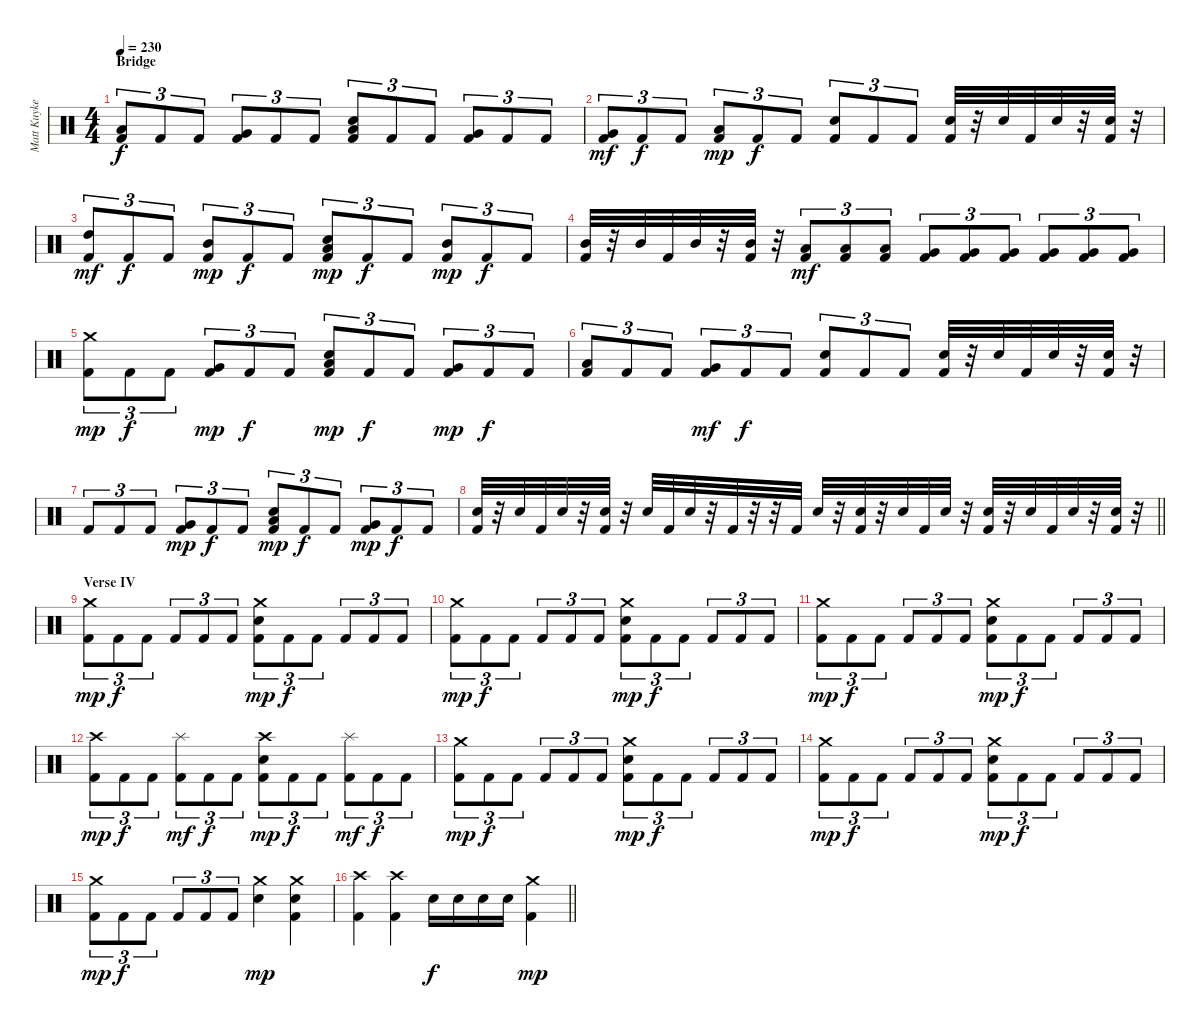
\track ("Matt Kuykendall" "Matt Kuyke") {instrument percussion}
\staff {score}
\articulation defaults
\ts (4 4)
\section ("" "Bridge")
\tempo 230
\clef neutral
\ks c
("Low Tom (hit)" "Kick (hit) 2").8{tu (3 2) dy f} "Kick (hit) 2".8{tu (3 2)} "Kick (hit) 2".8{tu (3 2)} ("Very Low Tom (hit)" "Kick (hit) 2").8{tu (3 2)} "Kick (hit) 2".8{tu (3 2)} "Kick (hit) 2".8{tu (3 2)} ("Electric Snare (hit)" "Low Tom (hit)" "Kick (hit) 2").8{tu (3 2)} "Kick (hit) 2".8{tu (3 2)} "Kick (hit) 2".8{tu (3 2)} ("Very Low Tom (hit)" "Kick (hit) 2").8{tu (3 2)} "Kick (hit) 2".8{tu (3 2)} "Kick (hit) 2".8{tu (3 2)} |
("Very Low Tom (hit)" "Kick (hit) 2").8{tu (3 2) dy mf} "Kick (hit) 2".8{tu (3 2) dy f} "Kick (hit) 2".8{tu (3 2)} ("Low Floor Tom (hit)" "Kick (hit) 2").8{tu (3 2) dy mp} "Kick (hit) 2".8{tu (3 2) dy f} "Kick (hit) 2".8{tu (3 2)} ("Electric Snare (hit)" "Kick (hit) 2").8{tu (3 2)} "Kick (hit) 2".8{tu (3 2)} "Kick (hit) 2".8{tu (3 2)} ("Electric Snare (hit)" "Kick (hit) 2").32 r.32 "Electric Snare (hit)".32 "Kick (hit) 2".32 "Electric Snare (hit)".32 r.32 ("Electric Snare (hit)" "Kick (hit) 2").32 r.32 |
("High Tom (hit)" "Kick (hit) 2").8{tu (3 2) dy mf} "Kick (hit) 2".8{tu (3 2) dy f} "Kick (hit) 2".8{tu (3 2)} ("Mid Tom (hit)" "Kick (hit) 2").8{tu (3 2) dy mp} "Kick (hit) 2".8{tu (3 2) dy f} "Kick (hit) 2".8{tu (3 2)} ("Electric Snare (hit)" "Low Tom (hit)" "Kick (hit) 2").8{tu (3 2) dy mp} "Kick (hit) 2".8{tu (3 2) dy f} "Kick (hit) 2".8{tu (3 2)} ("Mid Tom (hit)" "Kick (hit) 2").8{tu (3 2) dy mp} "Kick (hit) 2".8{tu (3 2) dy f} "Kick (hit) 2".8{tu (3 2)} |
("Mid Tom (hit)" "Kick (hit) 2").32 r.32 "Mid Tom (hit)".32 "Kick (hit) 2".32 "Mid Tom (hit)".32 r.32 ("Mid Tom (hit)" "Kick (hit) 2").32 r.32 ("Low Tom (hit)" "Kick (hit) 2").8{tu (3 2) dy mf} ("Low Tom (hit)" "Kick (hit) 2").8{tu (3 2)} ("Low Tom (hit)" "Kick (hit) 2").8{tu (3 2)} ("Very Low Tom (hit)" "Kick (hit) 2").8{tu (3 2)} ("Very Low Tom (hit)" "Kick (hit) 2").8{tu (3 2)} ("Very Low Tom (hit)" "Kick (hit) 2").8{tu (3 2)} ("Very Low Tom (hit)" "Kick (hit) 2").8{tu (3 2)} ("Very Low Tom (hit)" "Kick (hit) 2").8{tu (3 2)} ("Very Low Tom (hit)" "Kick (hit) 2").8{tu (3 2)} |
("Crash medium (hit)" "Kick (hit) 2").8{tu (3 2) dy mp} "Kick (hit) 2".8{tu (3 2) dy f} "Kick (hit) 2".8{tu (3 2)} ("Very Low Tom (hit)" "Kick (hit) 2").8{tu (3 2) dy mp} "Kick (hit) 2".8{tu (3 2) dy f} "Kick (hit) 2".8{tu (3 2)} ("Electric Snare (hit)" "Low Floor Tom (hit)" "Kick (hit) 2").8{tu (3 2) dy mp} "Kick (hit) 2".8{tu (3 2) dy f} "Kick (hit) 2".8{tu (3 2)} ("Very Low Tom (hit)" "Kick (hit) 2").8{tu (3 2) dy mp} "Kick (hit) 2".8{tu (3 2) dy f} "Kick (hit) 2".8{tu (3 2)} |
("Low Tom (hit)" "Kick (hit) 2").8{tu (3 2)} "Kick (hit) 2".8{tu (3 2)} "Kick (hit) 2".8{tu (3 2)} ("Very Low Tom (hit)" "Kick (hit) 2").8{tu (3 2) dy mf} "Kick (hit) 2".8{tu (3 2) dy f} "Kick (hit) 2".8{tu (3 2)} ("Electric Snare (hit)" "Kick (hit) 2").8{tu (3 2)} "Kick (hit) 2".8{tu (3 2)} "Kick (hit) 2".8{tu (3 2)} ("Electric Snare (hit)" "Kick (hit) 2").32 r.32 "Electric Snare (hit)".32 "Kick (hit) 2".32 "Electric Snare (hit)".32 r.32 ("Electric Snare (hit)" "Kick (hit) 2").32 r.32 |
"Kick (hit) 2".8{tu (3 2)} "Kick (hit) 2".8{tu (3 2)} "Kick (hit) 2".8{tu (3 2)} ("Very Low Tom (hit)" "Kick (hit) 2").8{tu (3 2) dy mp} "Kick (hit) 2".8{tu (3 2) dy f} "Kick (hit) 2".8{tu (3 2)} ("Electric Snare (hit)" "Low Floor Tom (hit)" "Kick (hit) 2").8{tu (3 2) dy mp} "Kick (hit) 2".8{tu (3 2) dy f} "Kick (hit) 2".8{tu (3 2)} ("Very Low Tom (hit)" "Kick (hit) 2").8{tu (3 2) dy mp} "Kick (hit) 2".8{tu (3 2) dy f} "Kick (hit) 2".8{tu (3 2)} |
\barLineRight lightlight
("Electric Snare (hit)" "Kick (hit) 2").32 r.32 "Electric Snare (hit)".32 "Kick (hit) 2".32 "Electric Snare (hit)".32 r.32 ("Electric Snare (hit)" "Kick (hit) 2").32 r.32 "Electric Snare (hit)".32 "Kick (hit) 2".32 "Electric Snare (hit)".32 r.32 "Kick (hit) 2".32 r.32 r.32 "Kick (hit) 2".32 "Electric Snare (hit)".32 r.32 ("Electric Snare (hit)" "Kick (hit) 2").32 r.32 "Electric Snare (hit)".32 "Kick (hit) 2".32 "Electric Snare (hit)".32 r.32 ("Electric Snare (hit)" "Kick (hit) 2").32 r.32 "Electric Snare (hit)".32 "Kick (hit) 2".32 "Electric Snare (hit)".32 r.32 ("Electric Snare (hit)" "Kick (hit) 2").32 r.32 |
\section ("" "Verse IV")
("Crash medium (hit)" "Kick (hit) 2").8{tu (3 2) dy mp} "Kick (hit) 2".8{tu (3 2) dy f} "Kick (hit) 2".8{tu (3 2)} "Kick (hit) 2".8{tu (3 2)} "Kick (hit) 2".8{tu (3 2)} "Kick (hit) 2".8{tu (3 2)} ("Crash medium (hit)" "Electric Snare (hit)" "Kick (hit) 2").8{tu (3 2) dy mp} "Kick (hit) 2".8{tu (3 2) dy f} "Kick (hit) 2".8{tu (3 2)} "Kick (hit) 2".8{tu (3 2)} "Kick (hit) 2".8{tu (3 2)} "Kick (hit) 2".8{tu (3 2)} |
("Crash medium (hit)" "Kick (hit) 2").8{tu (3 2) dy mp} "Kick (hit) 2".8{tu (3 2) dy f} "Kick (hit) 2".8{tu (3 2)} "Kick (hit) 2".8{tu (3 2)} "Kick (hit) 2".8{tu (3 2)} "Kick (hit) 2".8{tu (3 2)} ("Crash medium (hit)" "Electric Snare (hit)" "Kick (hit) 2").8{tu (3 2) dy mp} "Kick (hit) 2".8{tu (3 2) dy f} "Kick (hit) 2".8{tu (3 2)} "Kick (hit) 2".8{tu (3 2)} "Kick (hit) 2".8{tu (3 2)} "Kick (hit) 2".8{tu (3 2)} |
("Crash medium (hit)" "Kick (hit) 2").8{tu (3 2) dy mp} "Kick (hit) 2".8{tu (3 2) dy f} "Kick (hit) 2".8{tu (3 2)} "Kick (hit) 2".8{tu (3 2)} "Kick (hit) 2".8{tu (3 2)} "Kick (hit) 2".8{tu (3 2)} ("Crash medium (hit)" "Electric Snare (hit)" "Kick (hit) 2").8{tu (3 2) dy mp} "Kick (hit) 2".8{tu (3 2) dy f} "Kick (hit) 2".8{tu (3 2)} "Kick (hit) 2".8{tu (3 2)} "Kick (hit) 2".8{tu (3 2)} "Kick (hit) 2".8{tu (3 2)} |
("Crash high (hit)" "Kick (hit) 2").8{tu (3 2) dy mp} "Kick (hit) 2".8{tu (3 2) dy f} "Kick (hit) 2".8{tu (3 2)} ("Splash (hit)" "Kick (hit) 2").8{tu (3 2) dy mf} "Kick (hit) 2".8{tu (3 2) dy f} "Kick (hit) 2".8{tu (3 2)} ("Crash high (hit)" "Electric Snare (hit)" "Kick (hit) 2").8{tu (3 2) dy mp} "Kick (hit) 2".8{tu (3 2) dy f} "Kick (hit) 2".8{tu (3 2)} ("Splash (hit)" "Kick (hit) 2").8{tu (3 2) dy mf} "Kick (hit) 2".8{tu (3 2) dy f} "Kick (hit) 2".8{tu (3 2)} |
("Crash medium (hit)" "Kick (hit) 2").8{tu (3 2) dy mp} "Kick (hit) 2".8{tu (3 2) dy f} "Kick (hit) 2".8{tu (3 2)} "Kick (hit) 2".8{tu (3 2)} "Kick (hit) 2".8{tu (3 2)} "Kick (hit) 2".8{tu (3 2)} ("Crash medium (hit)" "Electric Snare (hit)" "Kick (hit) 2").8{tu (3 2) dy mp} "Kick (hit) 2".8{tu (3 2) dy f} "Kick (hit) 2".8{tu (3 2)} "Kick (hit) 2".8{tu (3 2)} "Kick (hit) 2".8{tu (3 2)} "Kick (hit) 2".8{tu (3 2)} |
("Crash medium (hit)" "Kick (hit) 2").8{tu (3 2) dy mp} "Kick (hit) 2".8{tu (3 2) dy f} "Kick (hit) 2".8{tu (3 2)} "Kick (hit) 2".8{tu (3 2)} "Kick (hit) 2".8{tu (3 2)} "Kick (hit) 2".8{tu (3 2)} ("Crash medium (hit)" "Electric Snare (hit)" "Kick (hit) 2").8{tu (3 2) dy mp} "Kick (hit) 2".8{tu (3 2) dy f} "Kick (hit) 2".8{tu (3 2)} "Kick (hit) 2".8{tu (3 2)} "Kick (hit) 2".8{tu (3 2)} "Kick (hit) 2".8{tu (3 2)} |
("Crash medium (hit)" "Kick (hit) 2").8{tu (3 2) dy mp} "Kick (hit) 2".8{tu (3 2) dy f} "Kick (hit) 2".8{tu (3 2)} "Kick (hit) 2".8{tu (3 2)} "Kick (hit) 2".8{tu (3 2)} "Kick (hit) 2".8{tu (3 2)} ("Crash medium (hit)" "Electric Snare (hit)").4{dy mp} ("Crash medium (hit)" "Electric Snare (hit)" "Kick (hit) 2").4 |
\barLineRight lightlight
("Crash high (hit)" "Kick (hit) 2").4 ("Crash high (hit)" "Kick (hit) 2").4 "Electric Snare (hit)".16{dy f} "Electric Snare (hit)".16 "Electric Snare (hit)".16 "Electric Snare (hit)".16 ("Crash medium (hit)" "Kick (hit) 2").4{dy mp}
